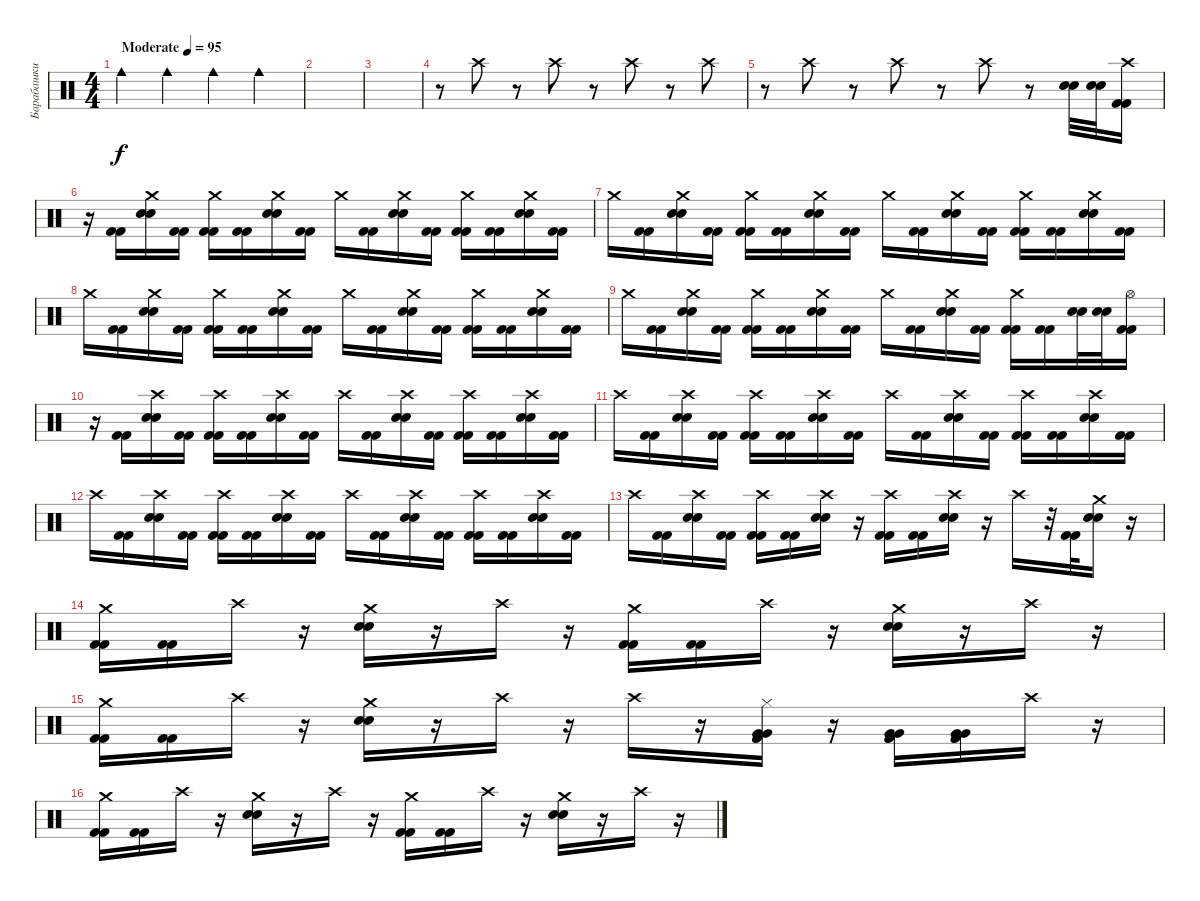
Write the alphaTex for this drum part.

\track ("Барабашки" "Барабашки") {instrument percussion}
\staff {score}
\articulation defaults
\ts (4 4)
\tempo (95 "Moderate")
\clef neutral
\ks c "Cowbell medium (hit)".4{dy f} "Cowbell medium (hit)".4 "Cowbell medium (hit)".4 "Cowbell medium (hit)".4
|
|
|
r.8 "Crash high (hit)".8 r.8 "Crash high (hit)".8 r.8 "Crash high (hit)".8 r.8 "Crash high (hit)".8 |
r.8 "Crash high (hit)".8 r.8 "Crash high (hit)".8 r.8 "Crash high (hit)".8 r.8 ("Electric Snare (hit)" "Electric Snare (hit)").32 ("Electric Snare (hit)" "Electric Snare (hit)").32 ("Crash high (hit)" "Kick (hit) 2" "Kick (hit) 2").16 |
r.16 ("Kick (hit) 2" "Kick (hit) 2").16 ("Crash medium (hit)" "Electric Snare (hit)" "Electric Snare (hit)").16 ("Kick (hit) 2" "Kick (hit) 2").16 ("Crash medium (hit)" "Kick (hit) 2" "Kick (hit) 2").16 ("Kick (hit) 2" "Kick (hit) 2").16 ("Crash medium (hit)" "Electric Snare (hit)" "Electric Snare (hit)").16 ("Kick (hit) 2" "Kick (hit) 2").16 "Crash medium (hit)".16 ("Kick (hit) 2" "Kick (hit) 2").16 ("Crash medium (hit)" "Electric Snare (hit)" "Electric Snare (hit)").16 ("Kick (hit) 2" "Kick (hit) 2").16 ("Crash medium (hit)" "Kick (hit) 2" "Kick (hit) 2").16 ("Kick (hit) 2" "Kick (hit) 2").16 ("Crash medium (hit)" "Electric Snare (hit)" "Electric Snare (hit)").16 ("Kick (hit) 2" "Kick (hit) 2").16 |
"Crash medium (hit)".16 ("Kick (hit) 2" "Kick (hit) 2").16 ("Crash medium (hit)" "Electric Snare (hit)" "Electric Snare (hit)").16 ("Kick (hit) 2" "Kick (hit) 2").16 ("Crash medium (hit)" "Kick (hit) 2" "Kick (hit) 2").16 ("Kick (hit) 2" "Kick (hit) 2").16 ("Crash medium (hit)" "Electric Snare (hit)" "Electric Snare (hit)").16 ("Kick (hit) 2" "Kick (hit) 2").16 "Crash medium (hit)".16 ("Kick (hit) 2" "Kick (hit) 2").16 ("Crash medium (hit)" "Electric Snare (hit)" "Electric Snare (hit)").16 ("Kick (hit) 2" "Kick (hit) 2").16 ("Crash medium (hit)" "Kick (hit) 2" "Kick (hit) 2").16 ("Kick (hit) 2" "Kick (hit) 2").16 ("Crash medium (hit)" "Electric Snare (hit)" "Electric Snare (hit)").16 ("Kick (hit) 2" "Kick (hit) 2").16 |
"Crash medium (hit)".16 ("Kick (hit) 2" "Kick (hit) 2").16 ("Crash medium (hit)" "Electric Snare (hit)" "Electric Snare (hit)").16 ("Kick (hit) 2" "Kick (hit) 2").16 ("Crash medium (hit)" "Kick (hit) 2" "Kick (hit) 2").16 ("Kick (hit) 2" "Kick (hit) 2").16 ("Crash medium (hit)" "Electric Snare (hit)" "Electric Snare (hit)").16 ("Kick (hit) 2" "Kick (hit) 2").16 "Crash medium (hit)".16 ("Kick (hit) 2" "Kick (hit) 2").16 ("Crash medium (hit)" "Electric Snare (hit)" "Electric Snare (hit)").16 ("Kick (hit) 2" "Kick (hit) 2").16 ("Crash medium (hit)" "Kick (hit) 2" "Kick (hit) 2").16 ("Kick (hit) 2" "Kick (hit) 2").16 ("Crash medium (hit)" "Electric Snare (hit)" "Electric Snare (hit)").16 ("Kick (hit) 2" "Kick (hit) 2").16 |
"Crash medium (hit)".16 ("Kick (hit) 2" "Kick (hit) 2").16 ("Crash medium (hit)" "Electric Snare (hit)" "Electric Snare (hit)").16 ("Kick (hit) 2" "Kick (hit) 2").16 ("Crash medium (hit)" "Kick (hit) 2" "Kick (hit) 2").16 ("Kick (hit) 2" "Kick (hit) 2").16 ("Crash medium (hit)" "Electric Snare (hit)" "Electric Snare (hit)").16 ("Kick (hit) 2" "Kick (hit) 2").16 "Crash medium (hit)".16 ("Kick (hit) 2" "Kick (hit) 2").16 ("Crash medium (hit)" "Electric Snare (hit)" "Electric Snare (hit)").16 ("Kick (hit) 2" "Kick (hit) 2").16 ("Crash medium (hit)" "Kick (hit) 2" "Kick (hit) 2").16 ("Kick (hit) 2" "Kick (hit) 2").16 ("Electric Snare (hit)" "Electric Snare (hit)").32 ("Electric Snare (hit)" "Electric Snare (hit)").32 ("Hi-Hat (open)" "Kick (hit) 2" "Kick (hit) 2").16 |
r.16 ("Kick (hit) 2" "Kick (hit) 2").16 ("Crash high (hit)" "Electric Snare (hit)" "Electric Snare (hit)").16 ("Kick (hit) 2" "Kick (hit) 2").16 ("Crash high (hit)" "Kick (hit) 2" "Kick (hit) 2").16 ("Kick (hit) 2" "Kick (hit) 2").16 ("Crash high (hit)" "Electric Snare (hit)" "Electric Snare (hit)").16 ("Kick (hit) 2" "Kick (hit) 2").16 "Crash high (hit)".16 ("Kick (hit) 2" "Kick (hit) 2").16 ("Crash high (hit)" "Electric Snare (hit)" "Electric Snare (hit)").16 ("Kick (hit) 2" "Kick (hit) 2").16 ("Crash high (hit)" "Kick (hit) 2" "Kick (hit) 2").16 ("Kick (hit) 2" "Kick (hit) 2").16 ("Crash high (hit)" "Electric Snare (hit)" "Electric Snare (hit)").16 ("Kick (hit) 2" "Kick (hit) 2").16 |
"Crash high (hit)".16 ("Kick (hit) 2" "Kick (hit) 2").16 ("Crash high (hit)" "Electric Snare (hit)" "Electric Snare (hit)").16 ("Kick (hit) 2" "Kick (hit) 2").16 ("Crash high (hit)" "Kick (hit) 2" "Kick (hit) 2").16 ("Kick (hit) 2" "Kick (hit) 2").16 ("Crash high (hit)" "Electric Snare (hit)" "Electric Snare (hit)").16 ("Kick (hit) 2" "Kick (hit) 2").16 "Crash high (hit)".16 ("Kick (hit) 2" "Kick (hit) 2").16 ("Crash high (hit)" "Electric Snare (hit)" "Electric Snare (hit)").16 ("Kick (hit) 2" "Kick (hit) 2").16 ("Crash high (hit)" "Kick (hit) 2" "Kick (hit) 2").16 ("Kick (hit) 2" "Kick (hit) 2").16 ("Crash high (hit)" "Electric Snare (hit)" "Electric Snare (hit)").16 ("Kick (hit) 2" "Kick (hit) 2").16 |
"Crash high (hit)".16 ("Kick (hit) 2" "Kick (hit) 2").16 ("Crash high (hit)" "Electric Snare (hit)" "Electric Snare (hit)").16 ("Kick (hit) 2" "Kick (hit) 2").16 ("Crash high (hit)" "Kick (hit) 2" "Kick (hit) 2").16 ("Kick (hit) 2" "Kick (hit) 2").16 ("Crash high (hit)" "Electric Snare (hit)" "Electric Snare (hit)").16 ("Kick (hit) 2" "Kick (hit) 2").16 "Crash high (hit)".16 ("Kick (hit) 2" "Kick (hit) 2").16 ("Crash high (hit)" "Electric Snare (hit)" "Electric Snare (hit)").16 ("Kick (hit) 2" "Kick (hit) 2").16 ("Crash high (hit)" "Kick (hit) 2" "Kick (hit) 2").16 ("Kick (hit) 2" "Kick (hit) 2").16 ("Crash high (hit)" "Electric Snare (hit)" "Electric Snare (hit)").16 ("Kick (hit) 2" "Kick (hit) 2").16 |
"Crash high (hit)".16 ("Kick (hit) 2" "Kick (hit) 2").16 ("Crash high (hit)" "Electric Snare (hit)" "Electric Snare (hit)").16 ("Kick (hit) 2" "Kick (hit) 2").16 ("Crash high (hit)" "Kick (hit) 2" "Kick (hit) 2").16 ("Kick (hit) 2" "Kick (hit) 2").16 ("Crash high (hit)" "Electric Snare (hit)" "Electric Snare (hit)").16 r.16 ("Crash high (hit)" "Kick (hit) 2" "Kick (hit) 2").16 ("Kick (hit) 2" "Kick (hit) 2").16 ("Crash high (hit)" "Electric Snare (hit)" "Electric Snare (hit)").16 r.16 "Crash high (hit)".16 r.32 ("Kick (hit) 2" "Kick (hit) 2").32 ("Crash medium (hit)" "Electric Snare (hit)" "Electric Snare (hit)").16 r.16 |
("Crash medium (hit)" "Kick (hit) 2" "Kick (hit) 2").16 ("Kick (hit) 2" "Kick (hit) 2").16 "Crash high (hit)".16 r.16 ("Crash medium (hit)" "Electric Snare (hit)" "Electric Snare (hit)").16 r.16 "Crash high (hit)".16 r.16 ("Crash medium (hit)" "Kick (hit) 2" "Kick (hit) 2").16 ("Kick (hit) 2" "Kick (hit) 2").16 "Crash high (hit)".16 r.16 ("Crash medium (hit)" "Electric Snare (hit)" "Electric Snare (hit)").16 r.16 "Crash high (hit)".16 r.16 |
("Crash medium (hit)" "Kick (hit) 2" "Kick (hit) 2").16 ("Kick (hit) 2" "Kick (hit) 2").16 "Crash high (hit)".16 r.16 ("Crash medium (hit)" "Electric Snare (hit)" "Electric Snare (hit)").16 r.16 "Crash high (hit)".16 r.16 "Crash high (hit)".16 r.16 ("Hi-Hat (closed)" "Very Low Tom (hit)" "Very Low Tom (hit)" "Kick (hit) 2" "Kick (hit) 2").16 r.16 ("Very Low Tom (hit)" "Very Low Tom (hit)" "Kick (hit) 2" "Kick (hit) 2").16 ("Very Low Tom (hit)" "Very Low Tom (hit)" "Kick (hit) 2" "Kick (hit) 2").16 "Crash high (hit)".16 r.16 |
("Crash medium (hit)" "Kick (hit) 2" "Kick (hit) 2").16 ("Kick (hit) 2" "Kick (hit) 2").16 "Crash high (hit)".16 r.16 ("Crash medium (hit)" "Electric Snare (hit)" "Electric Snare (hit)").16 r.16 "Crash high (hit)".16 r.16 ("Crash medium (hit)" "Kick (hit) 2" "Kick (hit) 2").16 ("Kick (hit) 2" "Kick (hit) 2").16 "Crash high (hit)".16 r.16 ("Crash medium (hit)" "Electric Snare (hit)" "Electric Snare (hit)").16 r.16 "Crash high (hit)".16 r.16
